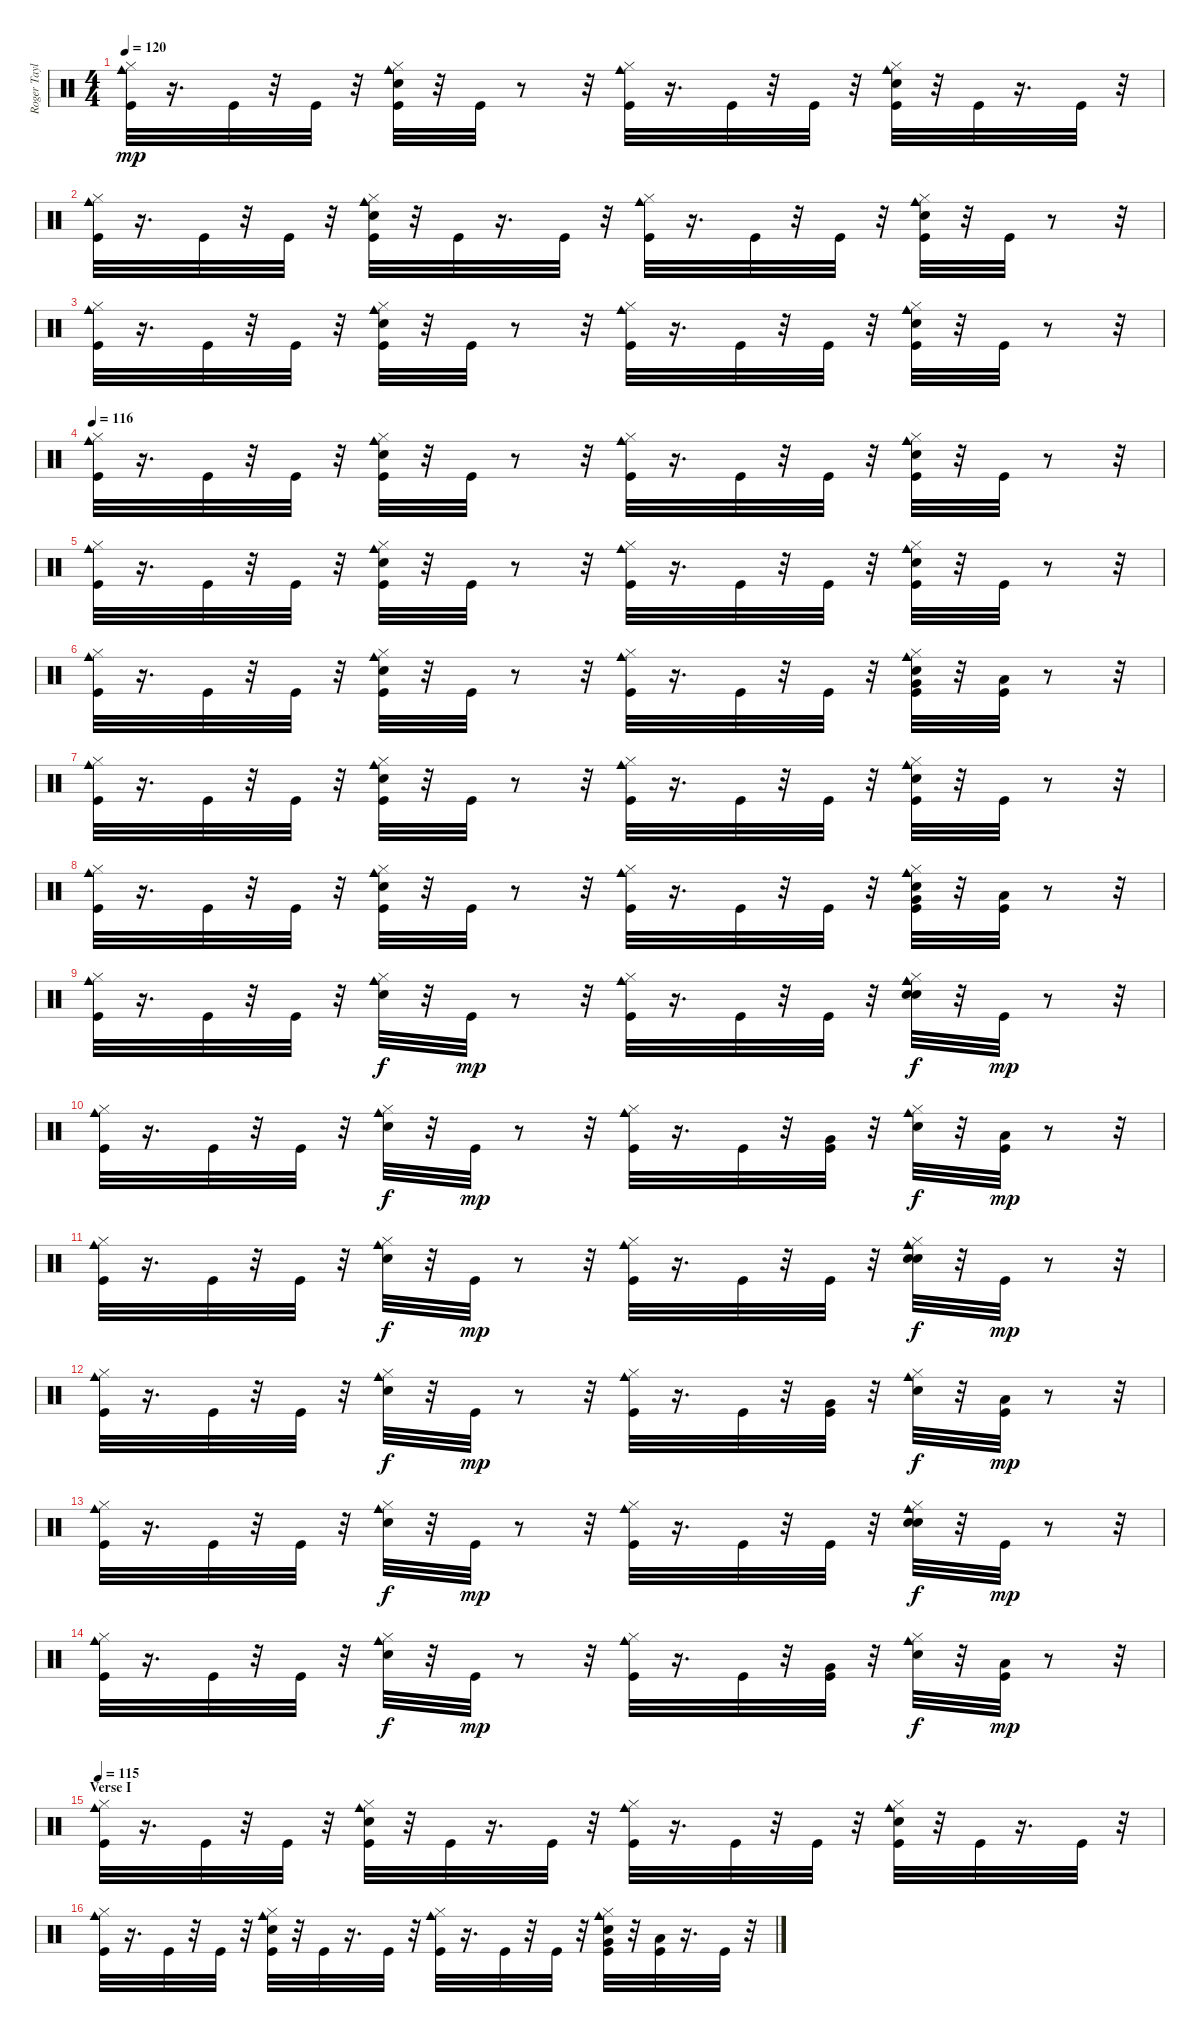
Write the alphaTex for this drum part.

\track ("Roger Taylor" "Roger Tayl") {instrument percussion}
\staff {score}
\articulation defaults
\ts (4 4)
\tempo 120
\tempo 115
\tempo 120
\clef neutral
\ks c
("Hi-Hat (closed)" "Cowbell medium (hit)" "Kick (hit)").32{dy mp} r.16{d} "Kick (hit)".32 r.32 "Kick (hit)".32 r.32 ("Hi-Hat (closed)" "Snare (hit)" "Cowbell medium (hit)" "Kick (hit)").32 r.32 "Kick (hit)".32 r.8 r.32 ("Hi-Hat (closed)" "Cowbell medium (hit)" "Kick (hit)").32 r.16{d} "Kick (hit)".32 r.32 "Kick (hit)".32 r.32 ("Hi-Hat (closed)" "Hand Clap (hit)" "Cowbell medium (hit)" "Kick (hit)").32 r.32 "Kick (hit)".32 r.16{d} "Kick (hit)".32 r.32 |
("Cowbell medium (hit)" "Hi-Hat (closed)" "Kick (hit)").32 r.16{d} "Kick (hit)".32 r.32 "Kick (hit)".32 r.32 ("Cowbell medium (hit)" "Snare (hit)" "Hi-Hat (closed)" "Kick (hit)").32 r.32 "Kick (hit)".32 r.16{d} "Kick (hit)".32 r.32 ("Cowbell medium (hit)" "Hi-Hat (closed)" "Kick (hit)").32 r.16{d} "Kick (hit)".32 r.32 "Kick (hit)".32 r.32 ("Cowbell medium (hit)" "Snare (hit)" "Hi-Hat (closed)" "Kick (hit)").32 r.32 "Kick (hit)".32 r.8 r.32 |
("Hi-Hat (closed)" "Cowbell medium (hit)" "Kick (hit)").32 r.16{d} "Kick (hit)".32 r.32 "Kick (hit)".32 r.32 ("Hi-Hat (closed)" "Snare (hit)" "Cowbell medium (hit)" "Kick (hit)").32 r.32 "Kick (hit)".32 r.8 r.32 ("Hi-Hat (closed)" "Cowbell medium (hit)" "Kick (hit)").32 r.16{d} "Kick (hit)".32 r.32 "Kick (hit)".32 r.32 ("Hi-Hat (closed)" "Hand Clap (hit)" "Cowbell medium (hit)" "Kick (hit)").32 r.32 "Kick (hit)".32 r.8 r.32 |
\tempo 116
("Cowbell medium (hit)" "Hi-Hat (closed)" "Kick (hit)").32 r.16{d} "Kick (hit)".32 r.32 "Kick (hit)".32 r.32 ("Cowbell medium (hit)" "Snare (hit)" "Hi-Hat (closed)" "Kick (hit)").32 r.32 "Kick (hit)".32 r.8 r.32 ("Cowbell medium (hit)" "Hi-Hat (closed)" "Kick (hit)").32 r.16{d} "Kick (hit)".32 r.32 "Kick (hit)".32 r.32 ("Cowbell medium (hit)" "Snare (hit)" "Hi-Hat (closed)" "Kick (hit)").32 r.32 "Kick (hit)".32 r.8 r.32 |
("Hi-Hat (closed)" "Cowbell medium (hit)" "Kick (hit)").32 r.16{d} "Kick (hit)".32 r.32 "Kick (hit)".32 r.32 ("Hi-Hat (closed)" "Snare (hit)" "Cowbell medium (hit)" "Kick (hit)").32 r.32 "Kick (hit)".32 r.8 r.32 ("Hi-Hat (closed)" "Cowbell medium (hit)" "Kick (hit)").32 r.16{d} "Kick (hit)".32 r.32 "Kick (hit)".32 r.32 ("Hi-Hat (closed)" "Hand Clap (hit)" "Cowbell medium (hit)" "Kick (hit)").32 r.32 "Kick (hit)".32 r.8 r.32 |
("Cowbell medium (hit)" "Hi-Hat (closed)" "Kick (hit)").32 r.16{d} "Kick (hit)".32 r.32 "Kick (hit)".32 r.32 ("Cowbell medium (hit)" "Snare (hit)" "Hi-Hat (closed)" "Kick (hit)").32 r.32 "Kick (hit)".32 r.8 r.32 ("Cowbell medium (hit)" "Hi-Hat (closed)" "Kick (hit)").32 r.16{d} "Kick (hit)".32 r.32 "Kick (hit)".32 r.32 ("Very Low Tom (hit)" "Cowbell medium (hit)" "Snare (hit)" "Hi-Hat (closed)" "Kick (hit)").32 r.32 ("Low Floor Tom (hit)" "Kick (hit)").32 r.8 r.32 |
("Hi-Hat (closed)" "Cowbell medium (hit)" "Kick (hit)").32 r.16{d} "Kick (hit)".32 r.32 "Kick (hit)".32 r.32 ("Hi-Hat (closed)" "Snare (hit)" "Cowbell medium (hit)" "Kick (hit)").32 r.32 "Kick (hit)".32 r.8 r.32 ("Hi-Hat (closed)" "Cowbell medium (hit)" "Kick (hit)").32 r.16{d} "Kick (hit)".32 r.32 "Kick (hit)".32 r.32 ("Hi-Hat (closed)" "Hand Clap (hit)" "Cowbell medium (hit)" "Kick (hit)").32 r.32 "Kick (hit)".32 r.8 r.32 |
("Cowbell medium (hit)" "Hi-Hat (closed)" "Kick (hit)").32 r.16{d} "Kick (hit)".32 r.32 "Kick (hit)".32 r.32 ("Cowbell medium (hit)" "Snare (hit)" "Hi-Hat (closed)" "Kick (hit)").32 r.32 "Kick (hit)".32 r.8 r.32 ("Cowbell medium (hit)" "Hi-Hat (closed)" "Kick (hit)").32 r.16{d} "Kick (hit)".32 r.32 "Kick (hit)".32 r.32 ("Very Low Tom (hit)" "Cowbell medium (hit)" "Snare (hit)" "Hi-Hat (closed)" "Kick (hit)").32 r.32 ("Low Floor Tom (hit)" "Kick (hit)").32 r.8 r.32 |
("Cowbell medium (hit)" "Hi-Hat (closed)" "Kick (hit)").32 r.16{d} "Kick (hit)".32 r.32 "Kick (hit)".32 r.32 ("Hand Clap (hit)" "Cowbell medium (hit)" "Hi-Hat (closed)").32{dy f} r.32 "Kick (hit)".32{dy mp} r.8 r.32 ("Cowbell medium (hit)" "Hi-Hat (closed)" "Kick (hit)").32 r.16{d} "Kick (hit)".32 r.32 "Kick (hit)".32 r.32 ("Snare (hit)" "Cowbell medium (hit)" "Hand Clap (hit)" "Hi-Hat (closed)").32{dy f} r.32 "Kick (hit)".32{dy mp} r.8 r.32 |
("Cowbell medium (hit)" "Hi-Hat (closed)" "Kick (hit)").32 r.16{d} "Kick (hit)".32 r.32 "Kick (hit)".32 r.32 ("Snare (hit)" "Cowbell medium (hit)" "Hi-Hat (closed)").32{dy f} r.32 "Kick (hit)".32{dy mp} r.8 r.32 ("Cowbell medium (hit)" "Hi-Hat (closed)" "Kick (hit)").32 r.16{d} "Kick (hit)".32 r.32 ("Very Low Tom (hit)" "Kick (hit)").32 r.32 ("Snare (hit)" "Cowbell medium (hit)" "Hi-Hat (closed)").32{dy f} r.32 ("Low Floor Tom (hit)" "Kick (hit)").32{dy mp} r.8 r.32 |
("Hi-Hat (closed)" "Cowbell medium (hit)" "Kick (hit)").32 r.16{d} "Kick (hit)".32 r.32 "Kick (hit)".32 r.32 ("Hi-Hat (closed)" "Hand Clap (hit)" "Cowbell medium (hit)").32{dy f} r.32 "Kick (hit)".32{dy mp} r.8 r.32 ("Cowbell medium (hit)" "Hi-Hat (closed)" "Kick (hit)").32 r.16{d} "Kick (hit)".32 r.32 "Kick (hit)".32 r.32 ("Hand Clap (hit)" "Hi-Hat (closed)" "Snare (hit)" "Cowbell medium (hit)").32{dy f} r.32 "Kick (hit)".32{dy mp} r.8 r.32 |
("Cowbell medium (hit)" "Hi-Hat (closed)" "Kick (hit)").32 r.16{d} "Kick (hit)".32 r.32 "Kick (hit)".32 r.32 ("Snare (hit)" "Cowbell medium (hit)" "Hi-Hat (closed)").32{dy f} r.32 "Kick (hit)".32{dy mp} r.8 r.32 ("Cowbell medium (hit)" "Hi-Hat (closed)" "Kick (hit)").32 r.16{d} "Kick (hit)".32 r.32 ("Very Low Tom (hit)" "Kick (hit)").32 r.32 ("Snare (hit)" "Cowbell medium (hit)" "Hi-Hat (closed)").32{dy f} r.32 ("Low Floor Tom (hit)" "Kick (hit)").32{dy mp} r.8 r.32 |
("Hi-Hat (closed)" "Cowbell medium (hit)" "Kick (hit)").32 r.16{d} "Kick (hit)".32 r.32 "Kick (hit)".32 r.32 ("Hi-Hat (closed)" "Hand Clap (hit)" "Cowbell medium (hit)").32{dy f} r.32 "Kick (hit)".32{dy mp} r.8 r.32 ("Cowbell medium (hit)" "Hi-Hat (closed)" "Kick (hit)").32 r.16{d} "Kick (hit)".32 r.32 "Kick (hit)".32 r.32 ("Hand Clap (hit)" "Hi-Hat (closed)" "Snare (hit)" "Cowbell medium (hit)").32{dy f} r.32 "Kick (hit)".32{dy mp} r.8 r.32 |
("Cowbell medium (hit)" "Hi-Hat (closed)" "Kick (hit)").32 r.16{d} "Kick (hit)".32 r.32 "Kick (hit)".32 r.32 ("Snare (hit)" "Cowbell medium (hit)" "Hi-Hat (closed)").32{dy f} r.32 "Kick (hit)".32{dy mp} r.8 r.32 ("Cowbell medium (hit)" "Hi-Hat (closed)" "Kick (hit)").32 r.16{d} "Kick (hit)".32 r.32 ("Very Low Tom (hit)" "Kick (hit)").32 r.32 ("Snare (hit)" "Cowbell medium (hit)" "Hi-Hat (closed)").32{dy f} r.32 ("Low Floor Tom (hit)" "Kick (hit)").32{dy mp} r.8 r.32 |
\section ("" "Verse I")
\tempo 115
("Cowbell medium (hit)" "Hi-Hat (closed)" "Kick (hit)").32 r.16{d} "Kick (hit)".32 r.32 "Kick (hit)".32 r.32 ("Snare (hit)" "Cowbell medium (hit)" "Hi-Hat (closed)" "Kick (hit)").32 r.32 "Kick (hit)".32 r.16{d} "Kick (hit)".32 r.32 ("Cowbell medium (hit)" "Hi-Hat (closed)" "Kick (hit)").32 r.16{d} "Kick (hit)".32 r.32 "Kick (hit)".32 r.32 ("Hand Clap (hit)" "Cowbell medium (hit)" "Hi-Hat (closed)" "Kick (hit)").32 r.32 "Kick (hit)".32 r.16{d} "Kick (hit)".32 r.32 |
("Cowbell medium (hit)" "Hi-Hat (closed)" "Kick (hit)").32 r.16{d} "Kick (hit)".32 r.32 "Kick (hit)".32 r.32 ("Snare (hit)" "Cowbell medium (hit)" "Hi-Hat (closed)" "Kick (hit)").32 r.32 "Kick (hit)".32 r.16{d} "Kick (hit)".32 r.32 ("Cowbell medium (hit)" "Hi-Hat (closed)" "Kick (hit)").32 r.16{d} "Kick (hit)".32 r.32 "Kick (hit)".32 r.32 ("Very Low Tom (hit)" "Hand Clap (hit)" "Cowbell medium (hit)" "Hi-Hat (closed)" "Kick (hit)").32 r.32 ("Low Floor Tom (hit)" "Kick (hit)").32 r.16{d} "Kick (hit)".32 r.32
